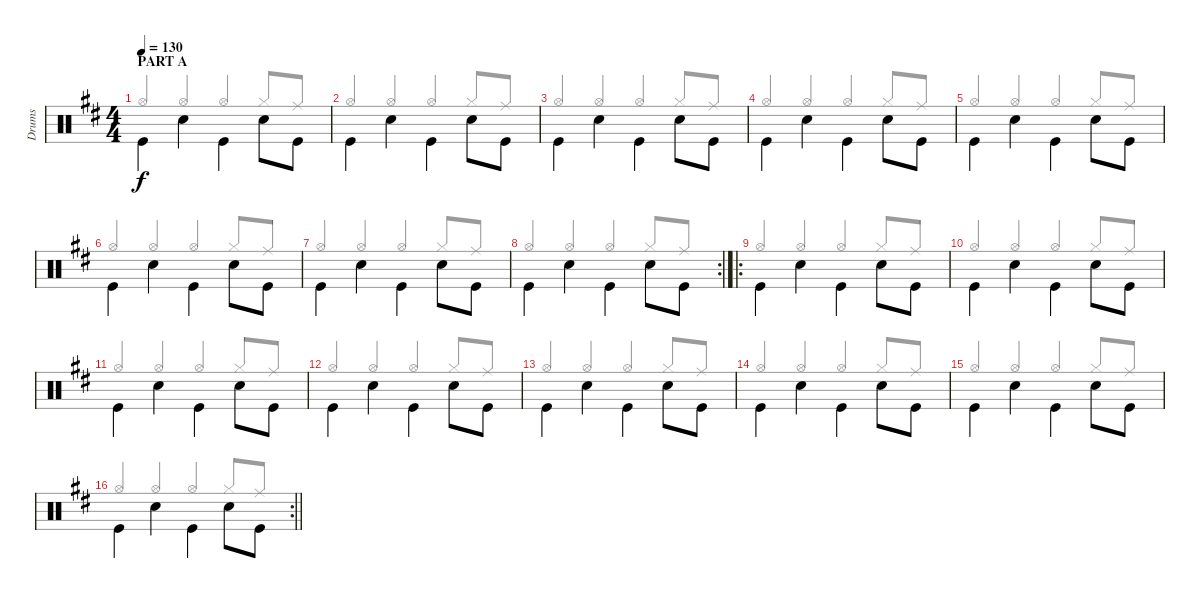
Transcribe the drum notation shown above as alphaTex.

\track ("Drums" "Drums") {instrument percussion}
\staff {score}
\articulation defaults
\voice
\ts (4 4)
\section ("" "PART A")
\tempo 130
\clef neutral
\ks d "Kick (hit)".4{dy f beam Down} "Snare (hit) 2".4{beam Down} "Kick (hit)".4{beam Down} "Snare (hit) 2".8{beam Down} "Kick (hit)".8{beam Down}
|
"Kick (hit)".4{beam Down} "Snare (hit) 2".4{beam Down} "Kick (hit)".4{beam Down} "Snare (hit) 2".8{beam Down} "Kick (hit)".8{beam Down} |
"Kick (hit)".4{beam Down} "Snare (hit) 2".4{beam Down} "Kick (hit)".4{beam Down} "Snare (hit) 2".8{beam Down} "Kick (hit)".8{beam Down} |
"Kick (hit)".4{beam Down} "Snare (hit) 2".4{beam Down} "Kick (hit)".4{beam Down} "Snare (hit) 2".8{beam Down} "Kick (hit)".8{beam Down} |
"Kick (hit)".4{beam Down} "Snare (hit) 2".4{beam Down} "Kick (hit)".4{beam Down} "Snare (hit) 2".8{beam Down} "Kick (hit)".8{beam Down} |
"Kick (hit)".4{beam Down} "Snare (hit) 2".4{beam Down} "Kick (hit)".4{beam Down} "Snare (hit) 2".8{beam Down} "Kick (hit)".8{beam Down} |
"Kick (hit)".4{beam Down} "Snare (hit) 2".4{beam Down} "Kick (hit)".4{beam Down} "Snare (hit) 2".8{beam Down} "Kick (hit)".8{beam Down} |
\rc 2 "Kick (hit)".4{beam Down} "Snare (hit) 2".4{beam Down} "Kick (hit)".4{beam Down} "Snare (hit) 2".8{beam Down} "Kick (hit)".8{beam Down}
|
\ro "Kick (hit)".4{beam Down} "Snare (hit) 2".4{beam Down} "Kick (hit)".4{beam Down} "Snare (hit) 2".8{beam Down} "Kick (hit)".8{beam Down}
|
"Kick (hit)".4{beam Down} "Snare (hit) 2".4{beam Down} "Kick (hit)".4{beam Down} "Snare (hit) 2".8{beam Down} "Kick (hit)".8{beam Down} |
"Kick (hit)".4{beam Down} "Snare (hit) 2".4{beam Down} "Kick (hit)".4{beam Down} "Snare (hit) 2".8{beam Down} "Kick (hit)".8{beam Down} |
"Kick (hit)".4{beam Down} "Snare (hit) 2".4{beam Down} "Kick (hit)".4{beam Down} "Snare (hit) 2".8{beam Down} "Kick (hit)".8{beam Down} |
"Kick (hit)".4{beam Down} "Snare (hit) 2".4{beam Down} "Kick (hit)".4{beam Down} "Snare (hit) 2".8{beam Down} "Kick (hit)".8{beam Down} |
"Kick (hit)".4{beam Down} "Snare (hit) 2".4{beam Down} "Kick (hit)".4{beam Down} "Snare (hit) 2".8{beam Down} "Kick (hit)".8{beam Down} |
"Kick (hit)".4{beam Down} "Snare (hit) 2".4{beam Down} "Kick (hit)".4{beam Down} "Snare (hit) 2".8{beam Down} "Kick (hit)".8{beam Down} |
\rc 2
\barLineRight lightlight "Kick (hit)".4{beam Down} "Snare (hit) 2".4{beam Down} "Kick (hit)".4{beam Down} "Snare (hit) 2".8{beam Down} "Kick (hit)".8{beam Down}
\voice
\clef neutral
\ottava regular
\simile none
\ks d "Hi-Hat (open)".4{dy f beam Up} "Hi-Hat (open)".4{beam Up} "Hi-Hat (open)".4{beam Up} "Hi-Hat (closed)".8{beam Up} "Ride (middle)".8{beam Up}
|
"Hi-Hat (open)".4{beam Up} "Hi-Hat (open)".4{beam Up} "Hi-Hat (open)".4{beam Up} "Hi-Hat (closed)".8{beam Up} "Ride (middle)".8{beam Up} |
"Hi-Hat (open)".4{beam Up} "Hi-Hat (open)".4{beam Up} "Hi-Hat (open)".4{beam Up} "Hi-Hat (closed)".8{beam Up} "Ride (middle)".8{beam Up} |
"Hi-Hat (open)".4{beam Up} "Hi-Hat (open)".4{beam Up} "Hi-Hat (open)".4{beam Up} "Hi-Hat (closed)".8{beam Up} "Ride (middle)".8{beam Up} |
"Hi-Hat (open)".4{beam Up} "Hi-Hat (open)".4{beam Up} "Hi-Hat (open)".4{beam Up} "Hi-Hat (closed)".8{beam Up} "Ride (middle)".8{beam Up} |
"Hi-Hat (open)".4{beam Up} "Hi-Hat (open)".4{beam Up} "Hi-Hat (open)".4{beam Up} "Hi-Hat (closed)".8{beam Up} "Ride (middle)".8{beam Up} |
"Hi-Hat (open)".4{beam Up} "Hi-Hat (open)".4{beam Up} "Hi-Hat (open)".4{beam Up} "Hi-Hat (closed)".8{beam Up} "Ride (middle)".8{beam Up} |
"Hi-Hat (open)".4{beam Up} "Hi-Hat (open)".4{beam Up} "Hi-Hat (open)".4{beam Up} "Hi-Hat (closed)".8{beam Up} "Ride (middle)".8{beam Up} |
"Hi-Hat (open)".4{beam Up} "Hi-Hat (open)".4{beam Up} "Hi-Hat (open)".4{beam Up} "Hi-Hat (closed)".8{beam Up} "Ride (middle)".8{beam Up} |
"Hi-Hat (open)".4{beam Up} "Hi-Hat (open)".4{beam Up} "Hi-Hat (open)".4{beam Up} "Hi-Hat (closed)".8{beam Up} "Ride (middle)".8{beam Up} |
"Hi-Hat (open)".4{beam Up} "Hi-Hat (open)".4{beam Up} "Hi-Hat (open)".4{beam Up} "Hi-Hat (closed)".8{beam Up} "Ride (middle)".8{beam Up} |
"Hi-Hat (open)".4{beam Up} "Hi-Hat (open)".4{beam Up} "Hi-Hat (open)".4{beam Up} "Hi-Hat (closed)".8{beam Up} "Ride (middle)".8{beam Up} |
"Hi-Hat (open)".4{beam Up} "Hi-Hat (open)".4{beam Up} "Hi-Hat (open)".4{beam Up} "Hi-Hat (closed)".8{beam Up} "Ride (middle)".8{beam Up} |
"Hi-Hat (open)".4{beam Up} "Hi-Hat (open)".4{beam Up} "Hi-Hat (open)".4{beam Up} "Hi-Hat (closed)".8{beam Up} "Ride (middle)".8{beam Up} |
"Hi-Hat (open)".4{beam Up} "Hi-Hat (open)".4{beam Up} "Hi-Hat (open)".4{beam Up} "Hi-Hat (closed)".8{beam Up} "Ride (middle)".8{beam Up} |
\barLineRight lightlight "Hi-Hat (open)".4{beam Up} "Hi-Hat (open)".4{beam Up} "Hi-Hat (open)".4{beam Up} "Hi-Hat (closed)".8{beam Up} "Ride (middle)".8{beam Up}
